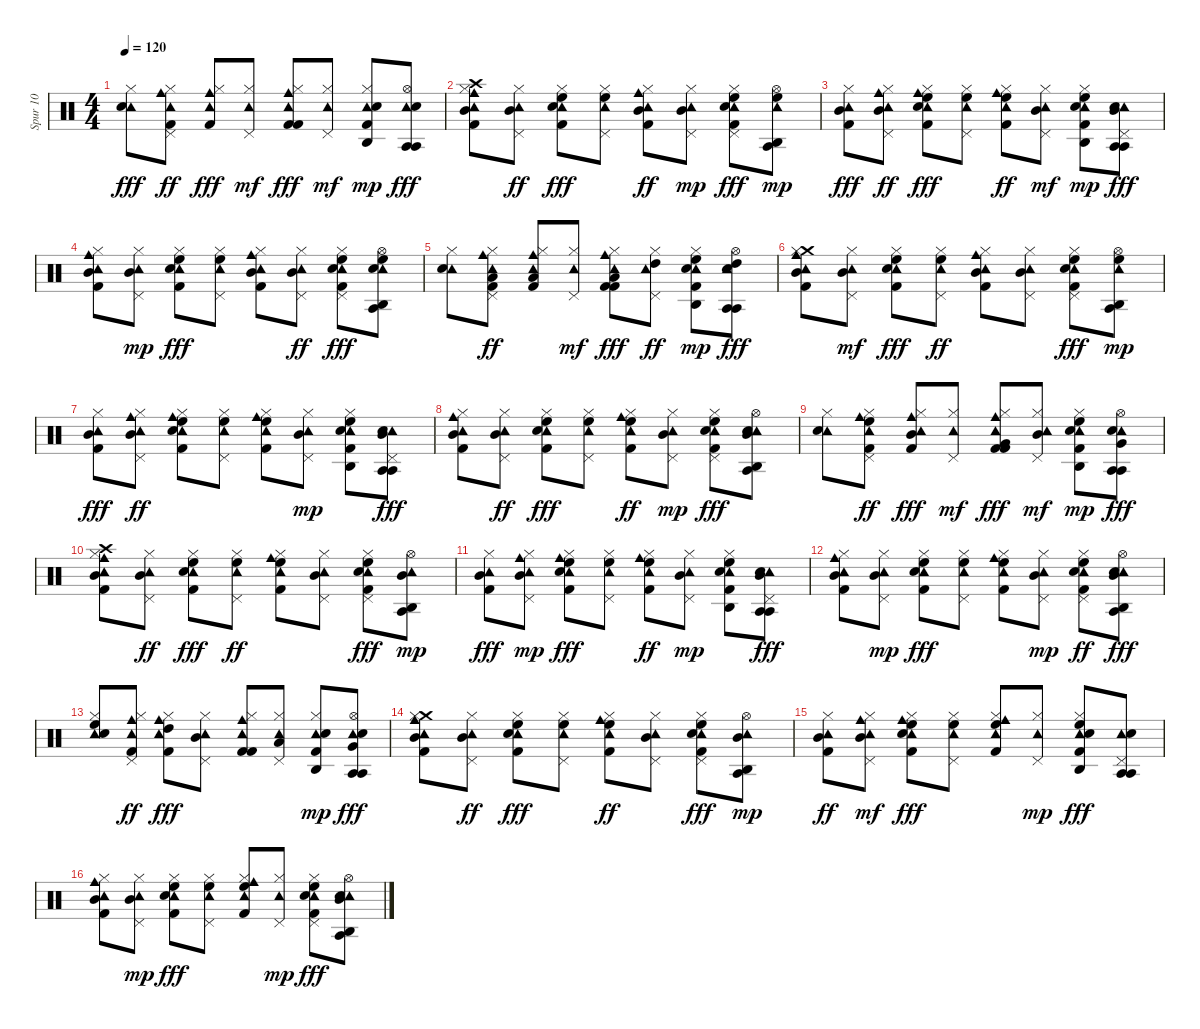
\track ("Spur 10" "Spur 10") {instrument percussion}
\staff {score}
\articulation defaults
\ts (4 4)
\tempo 120
\clef neutral
\ks c
("Tambourine (hit)" "Electric Snare (hit)" "Hi-Hat (closed)").8{dy fff} ("Tambourine (hit)" "Cowbell medium (hit)" "Hi-Hat (closed)" "Kick (hit) 2" "Pedal Hi-Hat (hit)").8{dy ff} ("Tambourine (hit)" "Hi-Hat (closed)" "Cowbell medium (hit)" "Kick (hit) 2").8{dy fff} ("Tambourine (hit)" "Hi-Hat (closed)" "Pedal Hi-Hat (hit)").8{dy mf} ("Tambourine (hit)" "Cowbell medium (hit)" "Kick (hit) 2" "Hi-Hat (closed)" "Kick (hit) 2").8{dy fff} ("Tambourine (hit)" "Hi-Hat (closed)" "Pedal Hi-Hat (hit)").8{dy mf} ("Tambourine (hit)" "Hi-Hat (closed)" "Kick (hit) 2" "Electric Snare (hit)" "Agogo high (hit)").8{dy mp} ("Agogo tow (hit)" "Tambourine (hit)" "Hi-Hat (open)" "Agogo tow (hit)" "Electric Snare (hit)").8{dy fff} |
("Tambourine (hit)" "Cowbell medium (hit)" "Mid Tom (hit)" "Crash high (hit)" "Hi-Hat (closed)" "Kick (hit) 2").8 ("Tambourine (hit)" "Hi-Hat (closed)" "Pedal Hi-Hat (hit)" "Mid Tom (hit)").8{dy ff} ("Tambourine (hit)" "High Floor Tom (hit)" "Electric Snare (hit)" "Kick (hit) 2" "Hi-Hat (closed)").8{dy fff} ("Tambourine (hit)" "High Floor Tom (hit)" "Hi-Hat (closed)" "Pedal Hi-Hat (hit)").8 ("Tambourine (hit)" "Cowbell medium (hit)" "Kick (hit) 2" "Hi-Hat (closed)" "Mid Tom (hit)").8{dy ff} ("Tambourine (hit)" "Hi-Hat (closed)" "Pedal Hi-Hat (hit)" "Mid Tom (hit)").8{dy mp} ("Tambourine (hit)" "High Floor Tom (hit)" "Kick (hit) 2" "Electric Snare (hit)" "Hi-Hat (closed)" "Pedal Hi-Hat (hit)").8{dy fff} ("Agogo high (hit)" "Tambourine (hit)" "High Floor Tom (hit)" "Hi-Hat (open)" "Agogo tow (hit)").8{dy mp} |
("Tambourine (hit)" "Mid Tom (hit)" "Kick (hit) 2" "Hi-Hat (closed)").8{dy fff} ("Cowbell medium (hit)" "Tambourine (hit)" "Hi-Hat (closed)" "Pedal Hi-Hat (hit)" "Mid Tom (hit)").8{dy ff} ("Tambourine (hit)" "Hi-Hat (closed)" "Kick (hit) 2" "Electric Snare (hit)" "High Floor Tom (hit)" "Cowbell medium (hit)").8{dy fff} ("Tambourine (hit)" "Hi-Hat (closed)" "High Floor Tom (hit)" "Pedal Hi-Hat (hit)").8 ("Cowbell medium (hit)" "Tambourine (hit)" "Kick (hit) 2" "Hi-Hat (closed)" "High Floor Tom (hit)").8{dy ff} ("Tambourine (hit)" "Hi-Hat (closed)" "Pedal Hi-Hat (hit)" "Mid Tom (hit)").8{dy mf} ("Tambourine (hit)" "Electric Snare (hit)" "Kick (hit) 2" "Hi-Hat (closed)" "High Floor Tom (hit)" "Agogo high (hit)").8{dy mp} ("Agogo tow (hit)" "Tambourine (hit)" "Pedal Hi-Hat (hit)" "Mid Tom (hit)" "Agogo tow (hit)" "Electric Snare (hit)").8{dy fff} |
("Cowbell medium (hit)" "Tambourine (hit)" "Kick (hit) 2" "Hi-Hat (closed)" "Mid Tom (hit)").8 ("Tambourine (hit)" "Hi-Hat (closed)" "Mid Tom (hit)" "Pedal Hi-Hat (hit)").8{dy mp} ("Tambourine (hit)" "High Floor Tom (hit)" "Electric Snare (hit)" "Kick (hit) 2" "Hi-Hat (closed)").8{dy fff} ("Tambourine (hit)" "Hi-Hat (closed)" "High Floor Tom (hit)" "Pedal Hi-Hat (hit)").8 ("Cowbell medium (hit)" "Tambourine (hit)" "Hi-Hat (closed)" "Kick (hit) 2" "Mid Tom (hit)").8 ("Tambourine (hit)" "Hi-Hat (closed)" "Pedal Hi-Hat (hit)" "Mid Tom (hit)").8{dy ff} ("Tambourine (hit)" "Kick (hit) 2" "Electric Snare (hit)" "Hi-Hat (closed)" "High Floor Tom (hit)" "Pedal Hi-Hat (hit)").8{dy fff} ("Agogo high (hit)" "Tambourine (hit)" "Hi-Hat (open)" "High Floor Tom (hit)" "Agogo tow (hit)" "Electric Snare (hit)").8 |
("Tambourine (hit)" "Electric Snare (hit)" "Hi-Hat (closed)").8 ("Tambourine (hit)" "Cowbell medium (hit)" "Hi-Hat (closed)" "Kick (hit) 2" "Low Tom (hit)" "Pedal Hi-Hat (hit)").8{dy ff} ("Tambourine (hit)" "Hi-Hat (closed)" "Cowbell medium (hit)" "Kick (hit) 2" "Low Tom (hit)").8 ("Tambourine (hit)" "Hi-Hat (closed)" "Pedal Hi-Hat (hit)").8{dy mf} ("Tambourine (hit)" "Cowbell medium (hit)" "Kick (hit) 2" "Hi-Hat (closed)" "Kick (hit) 2" "Low Tom (hit)").8{dy fff} ("Tambourine (hit)" "Hi-Hat (closed)" "Pedal Hi-Hat (hit)" "High Tom (hit)").8{dy ff} ("Tambourine (hit)" "Hi-Hat (closed)" "Kick (hit) 2" "Electric Snare (hit)" "High Floor Tom (hit)" "Agogo high (hit)").8{dy mp} ("Agogo tow (hit)" "Tambourine (hit)" "Hi-Hat (open)" "High Tom (hit)" "Agogo tow (hit)" "Electric Snare (hit)").8{dy fff} |
("Tambourine (hit)" "Cowbell medium (hit)" "Mid Tom (hit)" "Crash medium (hit)" "Hi-Hat (closed)" "Kick (hit) 2").8 ("Tambourine (hit)" "Hi-Hat (closed)" "Mid Tom (hit)" "Pedal Hi-Hat (hit)").8{dy mf} ("Tambourine (hit)" "High Floor Tom (hit)" "Electric Snare (hit)" "Kick (hit) 2" "Hi-Hat (closed)").8{dy fff} ("Tambourine (hit)" "High Floor Tom (hit)" "Hi-Hat (closed)" "Pedal Hi-Hat (hit)").8{dy ff} ("Tambourine (hit)" "Cowbell medium (hit)" "Kick (hit) 2" "Hi-Hat (closed)" "Mid Tom (hit)").8 ("Tambourine (hit)" "Hi-Hat (closed)" "Mid Tom (hit)" "Pedal Hi-Hat (hit)").8 ("Tambourine (hit)" "High Floor Tom (hit)" "Kick (hit) 2" "Electric Snare (hit)" "Hi-Hat (closed)" "Pedal Hi-Hat (hit)").8{dy fff} ("Agogo high (hit)" "Tambourine (hit)" "Hi-Hat (open)" "High Floor Tom (hit)" "Agogo tow (hit)").8{dy mp} |
("Tambourine (hit)" "Mid Tom (hit)" "Kick (hit) 2" "Hi-Hat (closed)").8{dy fff} ("Cowbell medium (hit)" "Tambourine (hit)" "Hi-Hat (closed)" "Pedal Hi-Hat (hit)" "Mid Tom (hit)").8{dy ff} ("Tambourine (hit)" "Hi-Hat (closed)" "Kick (hit) 2" "Electric Snare (hit)" "High Floor Tom (hit)" "Cowbell medium (hit)").8 ("Tambourine (hit)" "Hi-Hat (closed)" "High Floor Tom (hit)" "Pedal Hi-Hat (hit)").8 ("Cowbell medium (hit)" "Tambourine (hit)" "Kick (hit) 2" "Hi-Hat (closed)" "High Floor Tom (hit)").8 ("Tambourine (hit)" "Hi-Hat (closed)" "Pedal Hi-Hat (hit)" "Mid Tom (hit)").8{dy mp} ("Tambourine (hit)" "High Floor Tom (hit)" "Electric Snare (hit)" "Kick (hit) 2" "Hi-Hat (closed)" "Agogo high (hit)").8 ("Agogo tow (hit)" "Tambourine (hit)" "Mid Tom (hit)" "Pedal Hi-Hat (hit)" "Agogo tow (hit)" "Electric Snare (hit)").8{dy fff} |
("Tambourine (hit)" "Cowbell medium (hit)" "Mid Tom (hit)" "Kick (hit) 2" "Hi-Hat (closed)").8 ("Tambourine (hit)" "Hi-Hat (closed)" "Mid Tom (hit)" "Pedal Hi-Hat (hit)").8{dy ff} ("Tambourine (hit)" "High Floor Tom (hit)" "Electric Snare (hit)" "Kick (hit) 2" "Hi-Hat (closed)").8{dy fff} ("Tambourine (hit)" "High Floor Tom (hit)" "Hi-Hat (closed)" "Pedal Hi-Hat (hit)").8 ("Tambourine (hit)" "Cowbell medium (hit)" "Hi-Hat (closed)" "Kick (hit) 2" "High Floor Tom (hit)").8{dy ff} ("Tambourine (hit)" "Hi-Hat (closed)" "Pedal Hi-Hat (hit)" "Mid Tom (hit)").8{dy mp} ("Tambourine (hit)" "Kick (hit) 2" "Electric Snare (hit)" "Hi-Hat (closed)" "High Floor Tom (hit)" "Pedal Hi-Hat (hit)").8{dy fff} ("Agogo high (hit)" "Tambourine (hit)" "Hi-Hat (open)" "Mid Tom (hit)" "Agogo tow (hit)" "Electric Snare (hit)").8 |
("Tambourine (hit)" "Electric Snare (hit)" "Hi-Hat (closed)").8 ("Tambourine (hit)" "Cowbell medium (hit)" "Hi-Hat (closed)" "Kick (hit) 2" "High Floor Tom (hit)" "Pedal Hi-Hat (hit)").8{dy ff} ("Tambourine (hit)" "Hi-Hat (closed)" "Cowbell medium (hit)" "Kick (hit) 2" "Mid Tom (hit)").8{dy fff} ("Tambourine (hit)" "Hi-Hat (closed)" "Pedal Hi-Hat (hit)").8{dy mf} ("Tambourine (hit)" "Cowbell medium (hit)" "Kick (hit) 2" "Hi-Hat (closed)" "Kick (hit) 2" "Very Low Tom (hit)").8{dy fff} ("Tambourine (hit)" "Hi-Hat (closed)" "Mid Tom (hit)" "Pedal Hi-Hat (hit)").8{dy mf} ("Tambourine (hit)" "High Floor Tom (hit)" "Hi-Hat (closed)" "Kick (hit) 2" "Electric Snare (hit)" "Agogo high (hit)").8{dy mp} ("Agogo tow (hit)" "Tambourine (hit)" "Very Low Tom (hit)" "Hi-Hat (open)" "Agogo tow (hit)" "Electric Snare (hit)").8{dy fff} |
("Tambourine (hit)" "Cowbell medium (hit)" "Mid Tom (hit)" "Crash high (hit)" "Hi-Hat (closed)" "Kick (hit) 2").8 ("Tambourine (hit)" "Hi-Hat (closed)" "Pedal Hi-Hat (hit)" "Mid Tom (hit)").8{dy ff} ("Tambourine (hit)" "High Floor Tom (hit)" "Electric Snare (hit)" "Kick (hit) 2" "Hi-Hat (closed)").8{dy fff} ("Tambourine (hit)" "High Floor Tom (hit)" "Hi-Hat (closed)" "Pedal Hi-Hat (hit)").8{dy ff} ("Tambourine (hit)" "Cowbell medium (hit)" "Kick (hit) 2" "Hi-Hat (closed)" "High Floor Tom (hit)").8 ("Tambourine (hit)" "Hi-Hat (closed)" "Pedal Hi-Hat (hit)" "Mid Tom (hit)").8 ("Tambourine (hit)" "Kick (hit) 2" "Electric Snare (hit)" "Hi-Hat (closed)" "High Floor Tom (hit)" "Pedal Hi-Hat (hit)").8{dy fff} ("Agogo high (hit)" "Tambourine (hit)" "Hi-Hat (open)" "Mid Tom (hit)" "Agogo tow (hit)").8{dy mp} |
("Tambourine (hit)" "Mid Tom (hit)" "Kick (hit) 2" "Hi-Hat (closed)").8{dy fff} ("Cowbell medium (hit)" "Tambourine (hit)" "Hi-Hat (closed)" "Mid Tom (hit)" "Pedal Hi-Hat (hit)").8{dy mp} ("Tambourine (hit)" "High Floor Tom (hit)" "Hi-Hat (closed)" "Kick (hit) 2" "Electric Snare (hit)" "Cowbell medium (hit)").8{dy fff} ("Tambourine (hit)" "Hi-Hat (closed)" "High Floor Tom (hit)" "Pedal Hi-Hat (hit)").8 ("Cowbell medium (hit)" "Tambourine (hit)" "Kick (hit) 2" "Hi-Hat (closed)" "High Floor Tom (hit)").8{dy ff} ("Tambourine (hit)" "Hi-Hat (closed)" "Pedal Hi-Hat (hit)" "Mid Tom (hit)").8{dy mp} ("Tambourine (hit)" "Electric Snare (hit)" "Kick (hit) 2" "Hi-Hat (closed)" "High Floor Tom (hit)" "Agogo high (hit)").8 ("Agogo tow (hit)" "Tambourine (hit)" "Pedal Hi-Hat (hit)" "Mid Tom (hit)" "Agogo tow (hit)" "Electric Snare (hit)").8{dy fff} |
("Cowbell medium (hit)" "Tambourine (hit)" "Kick (hit) 2" "Hi-Hat (closed)" "Mid Tom (hit)").8 ("Tambourine (hit)" "Hi-Hat (closed)" "Mid Tom (hit)" "Pedal Hi-Hat (hit)").8{dy mp} ("Tambourine (hit)" "High Floor Tom (hit)" "Electric Snare (hit)" "Kick (hit) 2" "Hi-Hat (closed)").8{dy fff} ("Tambourine (hit)" "Hi-Hat (closed)" "High Floor Tom (hit)" "Pedal Hi-Hat (hit)").8 ("Cowbell medium (hit)" "Tambourine (hit)" "Hi-Hat (closed)" "Kick (hit) 2" "High Floor Tom (hit)").8 ("Tambourine (hit)" "Hi-Hat (closed)" "Pedal Hi-Hat (hit)" "Mid Tom (hit)").8{dy mp} ("Tambourine (hit)" "Kick (hit) 2" "Electric Snare (hit)" "Hi-Hat (closed)" "High Floor Tom (hit)" "Pedal Hi-Hat (hit)").8{dy ff} ("Agogo high (hit)" "Tambourine (hit)" "Hi-Hat (open)" "Mid Tom (hit)" "Agogo tow (hit)" "Electric Snare (hit)").8{dy fff} |
("Tambourine (hit)" "Electric Snare (hit)" "Hi-Hat (closed)" "High Floor Tom (hit)").8 ("Tambourine (hit)" "Cowbell medium (hit)" "Hi-Hat (closed)" "Kick (hit) 2" "Pedal Hi-Hat (hit)").8{dy ff} ("Tambourine (hit)" "High Tom (hit)" "Hi-Hat (closed)" "Cowbell medium (hit)" "Kick (hit) 2").8{dy fff} ("Tambourine (hit)" "Hi-Hat (closed)" "Mid Tom (hit)" "Pedal Hi-Hat (hit)").8 ("Tambourine (hit)" "Cowbell medium (hit)" "Kick (hit) 2" "Hi-Hat (closed)" "Kick (hit) 2").8 ("Tambourine (hit)" "Hi-Hat (closed)" "Low Tom (hit)" "Pedal Hi-Hat (hit)").8 ("Tambourine (hit)" "Hi-Hat (closed)" "Kick (hit) 2" "Electric Snare (hit)" "Agogo high (hit)").8{dy mp} ("Agogo tow (hit)" "Tambourine (hit)" "Very Low Tom (hit)" "Hi-Hat (open)" "Agogo tow (hit)" "Electric Snare (hit)").8{dy fff} |
("Tambourine (hit)" "Cowbell medium (hit)" "Mid Tom (hit)" "Crash medium (hit)" "Hi-Hat (closed)" "Kick (hit) 2").8 ("Tambourine (hit)" "Hi-Hat (closed)" "Pedal Hi-Hat (hit)" "Mid Tom (hit)").8{dy ff} ("Tambourine (hit)" "High Floor Tom (hit)" "Electric Snare (hit)" "Kick (hit) 2" "Hi-Hat (closed)").8{dy fff} ("Tambourine (hit)" "High Floor Tom (hit)" "Hi-Hat (closed)" "Pedal Hi-Hat (hit)").8 ("Tambourine (hit)" "Cowbell medium (hit)" "Kick (hit) 2" "Hi-Hat (closed)" "High Floor Tom (hit)").8{dy ff} ("Tambourine (hit)" "Hi-Hat (closed)" "Pedal Hi-Hat (hit)" "Mid Tom (hit)").8 ("Tambourine (hit)" "Kick (hit) 2" "Electric Snare (hit)" "Hi-Hat (closed)" "High Floor Tom (hit)" "Pedal Hi-Hat (hit)").8{dy fff} ("Agogo high (hit)" "Tambourine (hit)" "Hi-Hat (open)" "Mid Tom (hit)" "Agogo tow (hit)").8{dy mp} |
("Tambourine (hit)" "Kick (hit) 2" "Hi-Hat (closed)" "Mid Tom (hit)").8{dy ff} ("Cowbell medium (hit)" "Tambourine (hit)" "Hi-Hat (closed)" "Pedal Hi-Hat (hit)" "Mid Tom (hit)").8{dy mf} ("Tambourine (hit)" "Hi-Hat (closed)" "Kick (hit) 2" "Electric Snare (hit)" "High Floor Tom (hit)" "Cowbell medium (hit)").8{dy fff} ("Tambourine (hit)" "Hi-Hat (closed)" "High Floor Tom (hit)" "Pedal Hi-Hat (hit)").8 ("Cowbell medium (hit)" "Tambourine (hit)" "Kick (hit) 2" "Hi-Hat (closed)" "High Floor Tom (hit)").8 ("Tambourine (hit)" "Hi-Hat (closed)" "Pedal Hi-Hat (hit)").8{dy mp} ("Tambourine (hit)" "Electric Snare (hit)" "Kick (hit) 2" "Hi-Hat (closed)" "Agogo high (hit)" "High Floor Tom (hit)").8{dy fff} ("Agogo tow (hit)" "Tambourine (hit)" "Pedal Hi-Hat (hit)" "Agogo tow (hit)" "Electric Snare (hit)").8 |
("Tambourine (hit)" "Cowbell medium (hit)" "Kick (hit) 2" "Hi-Hat (closed)" "Mid Tom (hit)").8 ("Tambourine (hit)" "Hi-Hat (closed)" "Mid Tom (hit)" "Pedal Hi-Hat (hit)").8{dy mp} ("Tambourine (hit)" "High Floor Tom (hit)" "Electric Snare (hit)" "Kick (hit) 2" "Hi-Hat (closed)").8{dy fff} ("Tambourine (hit)" "High Floor Tom (hit)" "Hi-Hat (closed)" "Pedal Hi-Hat (hit)").8 ("Tambourine (hit)" "Cowbell medium (hit)" "Hi-Hat (closed)" "Kick (hit) 2" "High Floor Tom (hit)").8 ("Tambourine (hit)" "Hi-Hat (closed)" "Pedal Hi-Hat (hit)").8{dy mp} ("Tambourine (hit)" "High Floor Tom (hit)" "Kick (hit) 2" "Electric Snare (hit)" "Hi-Hat (closed)" "Pedal Hi-Hat (hit)").8{dy fff} ("Agogo high (hit)" "Tambourine (hit)" "Hi-Hat (open)" "Agogo tow (hit)" "Electric Snare (hit)" "Mid Tom (hit)").8
